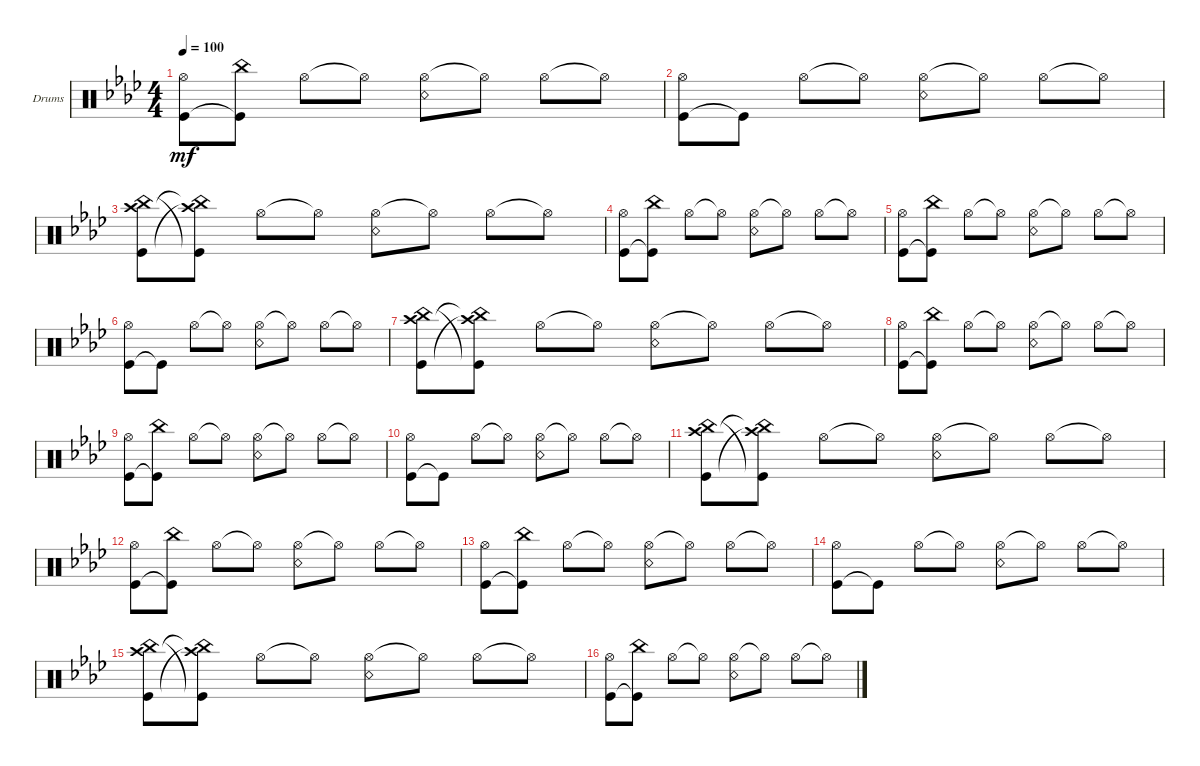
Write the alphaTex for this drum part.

\defaultSystemsLayout 4
\bracketExtendMode groupsimilarinstruments
\firstSystemTrackNameOrientation horizontal
\otherSystemsTrackNameOrientation horizontal
\track ("Drumkit" "Drums") {multiBarRest instrument percussion}
\staff {score}
\articulation defaults
\ts (4 4)
\tempo 100
\clef neutral
\ks fminor
("Kick (hit)" "Hi-Hat (open)").8{dy mf} ("Kick (hit)"{t} "China (hit)").8 "Hi-Hat (open)".8 "Hi-Hat (open)"{t}.8 ("Hi-Hat (open)" "Snare (rim shot)").8 "Hi-Hat (open)"{t}.8 "Hi-Hat (open)".8 "Hi-Hat (open)"{t}.8 |
("Kick (hit)" "Hi-Hat (open)").8 "Kick (hit)"{t}.8 "Hi-Hat (open)".8 "Hi-Hat (open)"{t}.8 ("Hi-Hat (open)" "Snare (rim shot)").8 "Hi-Hat (open)"{t}.8 "Hi-Hat (open)".8 "Hi-Hat (open)"{t}.8 |
("China (hit)" "Crash high (hit)" "Kick (hit)").8 ("Kick (hit)"{t} "China (hit)"{t} "Crash high (hit)"{t}).8 "Hi-Hat (open)".8 "Hi-Hat (open)"{t}.8 ("Hi-Hat (open)" "Snare (rim shot)").8 "Hi-Hat (open)"{t}.8 "Hi-Hat (open)".8 "Hi-Hat (open)"{t}.8 |
("Kick (hit)" "Hi-Hat (open)").8 ("Kick (hit)"{t} "China (hit)").8 "Hi-Hat (open)".8 "Hi-Hat (open)"{t}.8 ("Hi-Hat (open)" "Snare (rim shot)").8 "Hi-Hat (open)"{t}.8 "Hi-Hat (open)".8 "Hi-Hat (open)"{t}.8 |
("Kick (hit)" "Hi-Hat (open)").8 ("Kick (hit)"{t} "China (hit)").8 "Hi-Hat (open)".8 "Hi-Hat (open)"{t}.8 ("Hi-Hat (open)" "Snare (rim shot)").8 "Hi-Hat (open)"{t}.8 "Hi-Hat (open)".8 "Hi-Hat (open)"{t}.8 |
("Kick (hit)" "Hi-Hat (open)").8 "Kick (hit)"{t}.8 "Hi-Hat (open)".8 "Hi-Hat (open)"{t}.8 ("Hi-Hat (open)" "Snare (rim shot)").8 "Hi-Hat (open)"{t}.8 "Hi-Hat (open)".8 "Hi-Hat (open)"{t}.8 |
("China (hit)" "Crash high (hit)" "Kick (hit)").8 ("Kick (hit)"{t} "China (hit)"{t} "Crash high (hit)"{t}).8 "Hi-Hat (open)".8 "Hi-Hat (open)"{t}.8 ("Hi-Hat (open)" "Snare (rim shot)").8 "Hi-Hat (open)"{t}.8 "Hi-Hat (open)".8 "Hi-Hat (open)"{t}.8 |
("Kick (hit)" "Hi-Hat (open)").8 ("Kick (hit)"{t} "China (hit)").8 "Hi-Hat (open)".8 "Hi-Hat (open)"{t}.8 ("Hi-Hat (open)" "Snare (rim shot)").8 "Hi-Hat (open)"{t}.8 "Hi-Hat (open)".8 "Hi-Hat (open)"{t}.8 |
("Kick (hit)" "Hi-Hat (open)").8 ("Kick (hit)"{t} "China (hit)").8 "Hi-Hat (open)".8 "Hi-Hat (open)"{t}.8 ("Hi-Hat (open)" "Snare (rim shot)").8 "Hi-Hat (open)"{t}.8 "Hi-Hat (open)".8 "Hi-Hat (open)"{t}.8 |
("Kick (hit)" "Hi-Hat (open)").8 "Kick (hit)"{t}.8 "Hi-Hat (open)".8 "Hi-Hat (open)"{t}.8 ("Hi-Hat (open)" "Snare (rim shot)").8 "Hi-Hat (open)"{t}.8 "Hi-Hat (open)".8 "Hi-Hat (open)"{t}.8 |
("China (hit)" "Crash high (hit)" "Kick (hit)").8 ("Kick (hit)"{t} "China (hit)"{t} "Crash high (hit)"{t}).8 "Hi-Hat (open)".8 "Hi-Hat (open)"{t}.8 ("Hi-Hat (open)" "Snare (rim shot)").8 "Hi-Hat (open)"{t}.8 "Hi-Hat (open)".8 "Hi-Hat (open)"{t}.8 |
("Kick (hit)" "Hi-Hat (open)").8 ("Kick (hit)"{t} "China (hit)").8 "Hi-Hat (open)".8 "Hi-Hat (open)"{t}.8 ("Hi-Hat (open)" "Snare (rim shot)").8 "Hi-Hat (open)"{t}.8 "Hi-Hat (open)".8 "Hi-Hat (open)"{t}.8 |
("Kick (hit)" "Hi-Hat (open)").8 ("Kick (hit)"{t} "China (hit)").8 "Hi-Hat (open)".8 "Hi-Hat (open)"{t}.8 ("Hi-Hat (open)" "Snare (rim shot)").8 "Hi-Hat (open)"{t}.8 "Hi-Hat (open)".8 "Hi-Hat (open)"{t}.8 |
("Kick (hit)" "Hi-Hat (open)").8 "Kick (hit)"{t}.8 "Hi-Hat (open)".8 "Hi-Hat (open)"{t}.8 ("Hi-Hat (open)" "Snare (rim shot)").8 "Hi-Hat (open)"{t}.8 "Hi-Hat (open)".8 "Hi-Hat (open)"{t}.8 |
("China (hit)" "Crash high (hit)" "Kick (hit)").8 ("Kick (hit)"{t} "China (hit)"{t} "Crash high (hit)"{t}).8 "Hi-Hat (open)".8 "Hi-Hat (open)"{t}.8 ("Hi-Hat (open)" "Snare (rim shot)").8 "Hi-Hat (open)"{t}.8 "Hi-Hat (open)".8 "Hi-Hat (open)"{t}.8 |
("Kick (hit)" "Hi-Hat (open)").8 ("Kick (hit)"{t} "China (hit)").8 "Hi-Hat (open)".8 "Hi-Hat (open)"{t}.8 ("Hi-Hat (open)" "Snare (rim shot)").8 "Hi-Hat (open)"{t}.8 "Hi-Hat (open)".8 "Hi-Hat (open)"{t}.8
